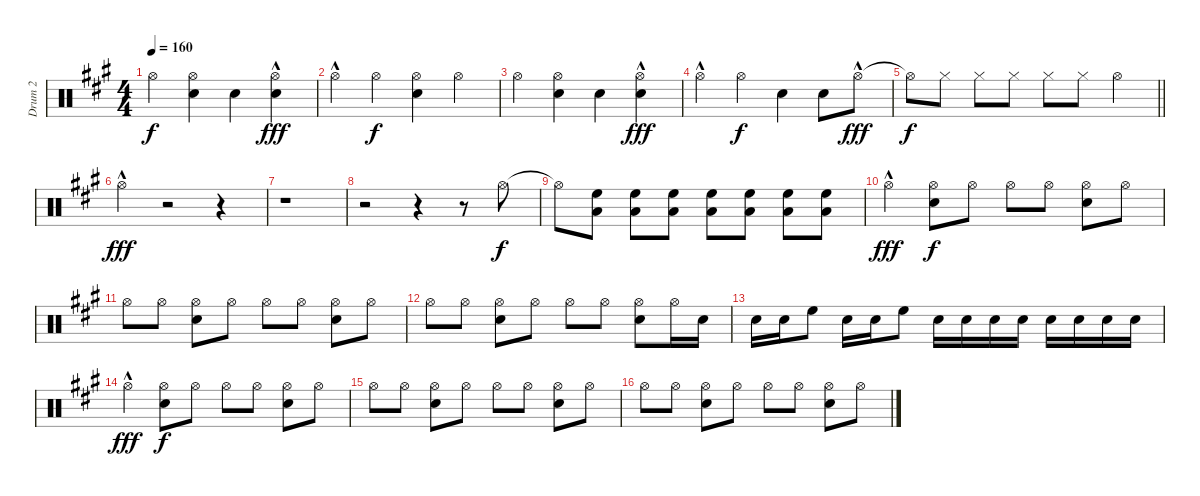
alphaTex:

\track ("Drum 2" "Drum 2") {instrument percussion}
\staff {score}
\articulation defaults
\ts (4 4)
\tempo 160
\clef neutral
\ks a "Hi-Hat (open)".4{dy f}
("Hi-Hat (open)" "Snare (hit) 2").4 "Snare (hit) 2".4 ("Hi-Hat (open)"{hac} "Snare (hit) 2").4{dy fff} |
"Hi-Hat (open)"{hac}.4 "Hi-Hat (open)".4{dy f} ("Hi-Hat (open)" "Snare (hit) 2").4 "Hi-Hat (open)".4 |
"Hi-Hat (open)".4 ("Hi-Hat (open)" "Snare (hit) 2").4 "Snare (hit) 2".4 ("Hi-Hat (open)"{hac} "Snare (hit) 2").4{dy fff} |
"Hi-Hat (open)"{hac}.4 "Hi-Hat (open)".4{dy f} "Snare (hit) 2".4 "Snare (hit) 2".8 "Hi-Hat (open)"{hac}.8{dy fff} |
\barLineRight lightlight "Hi-Hat (open)"{t}.8{dy f} "Hi-Hat (closed)".8 "Hi-Hat (closed)".8 "Hi-Hat (closed)".8 "Hi-Hat (closed)".8 "Hi-Hat (closed)".8 "Hi-Hat (open)".4
|
"Hi-Hat (open)"{hac}.4{dy fff} r.2 r.4 |
r.1 |
r.2 r.4 r.8 "Hi-Hat (open)".8{dy f} |
"Hi-Hat (open)"{t}.8 ("High Floor Tom (hit)" "Low Tom (hit)").8 ("High Floor Tom (hit)" "Low Tom (hit)").8 ("High Floor Tom (hit)" "Low Tom (hit)").8 ("High Floor Tom (hit)" "Low Tom (hit)").8 ("High Floor Tom (hit)" "Low Tom (hit)").8 ("High Floor Tom (hit)" "Low Tom (hit)").8 ("High Floor Tom (hit)" "Low Tom (hit)").8 |
"Hi-Hat (open)"{hac}.4{dy fff} ("Hi-Hat (open)" "Snare (hit) 2").8{dy f} "Hi-Hat (open)".8 "Hi-Hat (open)".8 "Hi-Hat (open)".8 ("Hi-Hat (open)" "Snare (hit) 2").8 "Hi-Hat (open)".8 |
"Hi-Hat (open)".8 "Hi-Hat (open)".8 ("Hi-Hat (open)" "Snare (hit) 2").8 "Hi-Hat (open)".8 "Hi-Hat (open)".8 "Hi-Hat (open)".8 ("Hi-Hat (open)" "Snare (hit) 2").8 "Hi-Hat (open)".8 |
"Hi-Hat (open)".8 "Hi-Hat (open)".8 ("Hi-Hat (open)" "Snare (hit) 2").8 "Hi-Hat (open)".8 "Hi-Hat (open)".8 "Hi-Hat (open)".8 ("Hi-Hat (open)" "Snare (hit) 2").8 "Hi-Hat (open)".16 "Snare (hit) 2".16 |
"Snare (hit) 2".16 "Snare (hit) 2".16 "High Floor Tom (hit)".8 "Snare (hit) 2".16 "Snare (hit) 2".16 "High Floor Tom (hit)".8 "Snare (hit) 2".16 "Snare (hit) 2".16 "Snare (hit) 2".16 "Snare (hit) 2".16 "Snare (hit) 2".16 "Snare (hit) 2".16 "Snare (hit) 2".16 "Snare (hit) 2".16 |
"Hi-Hat (open)"{hac}.4{dy fff} ("Hi-Hat (open)" "Snare (hit) 2").8{dy f} "Hi-Hat (open)".8 "Hi-Hat (open)".8 "Hi-Hat (open)".8 ("Hi-Hat (open)" "Snare (hit) 2").8 "Hi-Hat (open)".8 |
"Hi-Hat (open)".8 "Hi-Hat (open)".8 ("Hi-Hat (open)" "Snare (hit) 2").8 "Hi-Hat (open)".8 "Hi-Hat (open)".8 "Hi-Hat (open)".8 ("Hi-Hat (open)" "Snare (hit) 2").8 "Hi-Hat (open)".8 |
"Hi-Hat (open)".8 "Hi-Hat (open)".8 ("Hi-Hat (open)" "Snare (hit) 2").8 "Hi-Hat (open)".8 "Hi-Hat (open)".8 "Hi-Hat (open)".8 ("Hi-Hat (open)" "Snare (hit) 2").8 "Hi-Hat (open)".8
